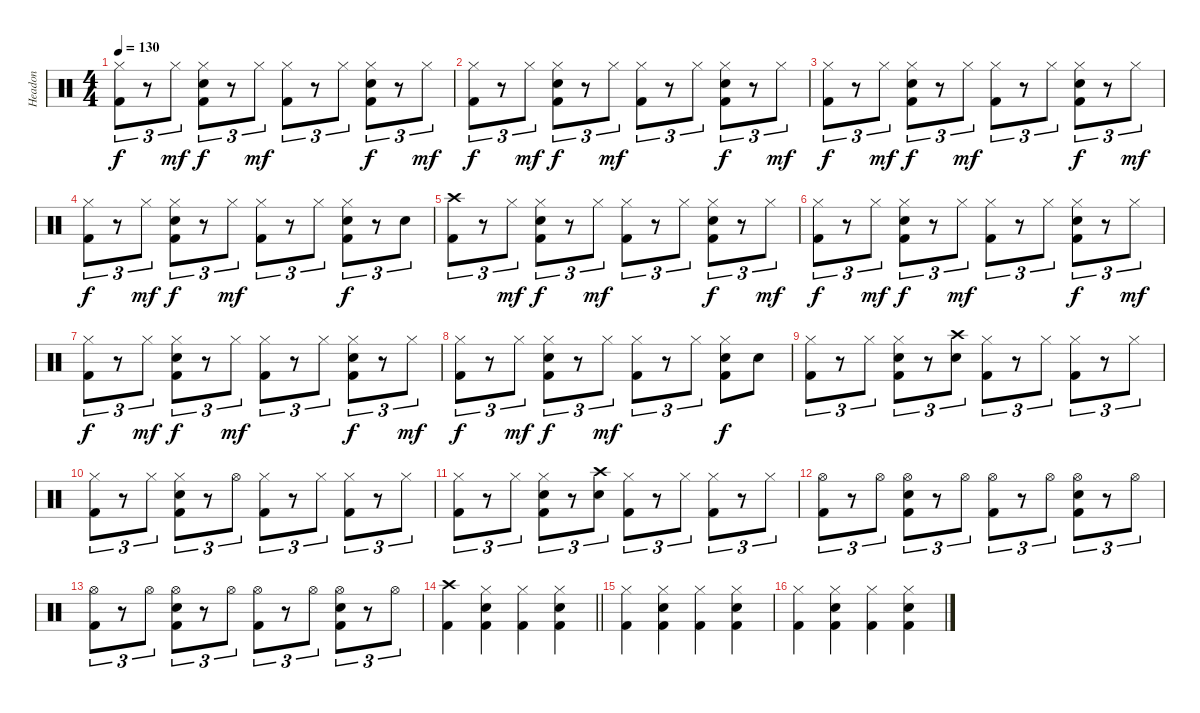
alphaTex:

\track ("Headon" "Headon") {instrument percussion}
\staff {score}
\articulation defaults
\ts (4 4)
\tempo 130
\clef neutral
\ks c
("Hi-Hat (closed)" "Kick (hit) 2").8{tu (3 2) dy f} r.8{tu (3 2)} "Hi-Hat (closed)".8{tu (3 2) dy mf} ("Hi-Hat (closed)" "Snare (hit) 2" "Kick (hit) 2").8{tu (3 2) dy f} r.8{tu (3 2)} "Hi-Hat (closed)".8{tu (3 2) dy mf} ("Hi-Hat (closed)" "Kick (hit) 2").8{tu (3 2)} r.8{tu (3 2)} "Hi-Hat (closed)".8{tu (3 2)} ("Hi-Hat (closed)" "Snare (hit) 2" "Kick (hit) 2").8{tu (3 2) dy f} r.8{tu (3 2)} "Hi-Hat (closed)".8{tu (3 2) dy mf} |
("Hi-Hat (closed)" "Kick (hit) 2").8{tu (3 2) dy f} r.8{tu (3 2)} "Hi-Hat (closed)".8{tu (3 2) dy mf} ("Hi-Hat (closed)" "Snare (hit) 2" "Kick (hit) 2").8{tu (3 2) dy f} r.8{tu (3 2)} "Hi-Hat (closed)".8{tu (3 2) dy mf} ("Hi-Hat (closed)" "Kick (hit) 2").8{tu (3 2)} r.8{tu (3 2)} "Hi-Hat (closed)".8{tu (3 2)} ("Hi-Hat (closed)" "Snare (hit) 2" "Kick (hit) 2").8{tu (3 2) dy f} r.8{tu (3 2)} "Hi-Hat (closed)".8{tu (3 2) dy mf} |
("Hi-Hat (closed)" "Kick (hit) 2").8{tu (3 2) dy f} r.8{tu (3 2)} "Hi-Hat (closed)".8{tu (3 2) dy mf} ("Hi-Hat (closed)" "Snare (hit) 2" "Kick (hit) 2").8{tu (3 2) dy f} r.8{tu (3 2)} "Hi-Hat (closed)".8{tu (3 2) dy mf} ("Hi-Hat (closed)" "Kick (hit) 2").8{tu (3 2)} r.8{tu (3 2)} "Hi-Hat (closed)".8{tu (3 2)} ("Hi-Hat (closed)" "Snare (hit) 2" "Kick (hit) 2").8{tu (3 2) dy f} r.8{tu (3 2)} "Hi-Hat (closed)".8{tu (3 2) dy mf} |
("Hi-Hat (closed)" "Kick (hit) 2").8{tu (3 2) dy f} r.8{tu (3 2)} "Hi-Hat (closed)".8{tu (3 2) dy mf} ("Hi-Hat (closed)" "Snare (hit) 2" "Kick (hit) 2").8{tu (3 2) dy f} r.8{tu (3 2)} "Hi-Hat (closed)".8{tu (3 2) dy mf} ("Hi-Hat (closed)" "Kick (hit) 2").8{tu (3 2)} r.8{tu (3 2)} "Hi-Hat (closed)".8{tu (3 2)} ("Hi-Hat (closed)" "Snare (hit) 2" "Kick (hit) 2").8{tu (3 2) dy f} r.8{tu (3 2)} "Snare (hit) 2".8{tu (3 2)} |
("Crash high (hit)" "Kick (hit) 2").8{tu (3 2)} r.8{tu (3 2)} "Hi-Hat (closed)".8{tu (3 2) dy mf} ("Hi-Hat (closed)" "Snare (hit) 2" "Kick (hit) 2").8{tu (3 2) dy f} r.8{tu (3 2)} "Hi-Hat (closed)".8{tu (3 2) dy mf} ("Hi-Hat (closed)" "Kick (hit) 2").8{tu (3 2)} r.8{tu (3 2)} "Hi-Hat (closed)".8{tu (3 2)} ("Hi-Hat (closed)" "Snare (hit) 2" "Kick (hit) 2").8{tu (3 2) dy f} r.8{tu (3 2)} "Hi-Hat (closed)".8{tu (3 2) dy mf} |
("Hi-Hat (closed)" "Kick (hit) 2").8{tu (3 2) dy f} r.8{tu (3 2)} "Hi-Hat (closed)".8{tu (3 2) dy mf} ("Hi-Hat (closed)" "Snare (hit) 2" "Kick (hit) 2").8{tu (3 2) dy f} r.8{tu (3 2)} "Hi-Hat (closed)".8{tu (3 2) dy mf} ("Hi-Hat (closed)" "Kick (hit) 2").8{tu (3 2)} r.8{tu (3 2)} "Hi-Hat (closed)".8{tu (3 2)} ("Hi-Hat (closed)" "Snare (hit) 2" "Kick (hit) 2").8{tu (3 2) dy f} r.8{tu (3 2)} "Hi-Hat (closed)".8{tu (3 2) dy mf} |
("Hi-Hat (closed)" "Kick (hit) 2").8{tu (3 2) dy f} r.8{tu (3 2)} "Hi-Hat (closed)".8{tu (3 2) dy mf} ("Hi-Hat (closed)" "Snare (hit) 2" "Kick (hit) 2").8{tu (3 2) dy f} r.8{tu (3 2)} "Hi-Hat (closed)".8{tu (3 2) dy mf} ("Hi-Hat (closed)" "Kick (hit) 2").8{tu (3 2)} r.8{tu (3 2)} "Hi-Hat (closed)".8{tu (3 2)} ("Hi-Hat (closed)" "Snare (hit) 2" "Kick (hit) 2").8{tu (3 2) dy f} r.8{tu (3 2)} "Hi-Hat (closed)".8{tu (3 2) dy mf} |
("Hi-Hat (closed)" "Kick (hit) 2").8{tu (3 2) dy f} r.8{tu (3 2)} "Hi-Hat (closed)".8{tu (3 2) dy mf} ("Hi-Hat (closed)" "Snare (hit) 2" "Kick (hit) 2").8{tu (3 2) dy f} r.8{tu (3 2)} "Hi-Hat (closed)".8{tu (3 2) dy mf} ("Hi-Hat (closed)" "Kick (hit) 2").8{tu (3 2)} r.8{tu (3 2)} "Hi-Hat (closed)".8{tu (3 2)} ("Hi-Hat (closed)" "Snare (hit) 2" "Kick (hit) 2").8{dy f} "Snare (hit) 2".8 |
("Hi-Hat (closed)" "Kick (hit) 2").8{tu (3 2)} r.8{tu (3 2)} "Hi-Hat (closed)".8{tu (3 2)} ("Hi-Hat (closed)" "Snare (hit) 2" "Kick (hit) 2").8{tu (3 2)} r.8{tu (3 2)} ("Crash high (hit)" "Snare (hit) 2").8{tu (3 2)} ("Hi-Hat (closed)" "Kick (hit) 2").8{tu (3 2)} r.8{tu (3 2)} "Hi-Hat (closed)".8{tu (3 2)} ("Hi-Hat (closed)" "Kick (hit) 2").8{tu (3 2)} r.8{tu (3 2)} "Hi-Hat (closed)".8{tu (3 2)} |
("Hi-Hat (closed)" "Kick (hit) 2").8{tu (3 2)} r.8{tu (3 2)} "Hi-Hat (closed)".8{tu (3 2)} ("Hi-Hat (closed)" "Snare (hit) 2" "Kick (hit) 2").8{tu (3 2)} r.8{tu (3 2)} "Hi-Hat (open)".8{tu (3 2)} ("Hi-Hat (closed)" "Kick (hit) 2").8{tu (3 2)} r.8{tu (3 2)} "Hi-Hat (closed)".8{tu (3 2)} ("Hi-Hat (closed)" "Kick (hit) 2").8{tu (3 2)} r.8{tu (3 2)} "Hi-Hat (closed)".8{tu (3 2)} |
("Hi-Hat (closed)" "Kick (hit) 2").8{tu (3 2)} r.8{tu (3 2)} "Hi-Hat (closed)".8{tu (3 2)} ("Hi-Hat (closed)" "Snare (hit) 2" "Kick (hit) 2").8{tu (3 2)} r.8{tu (3 2)} ("Crash high (hit)" "Snare (hit) 2").8{tu (3 2)} ("Hi-Hat (closed)" "Kick (hit) 2").8{tu (3 2)} r.8{tu (3 2)} "Hi-Hat (closed)".8{tu (3 2)} ("Hi-Hat (closed)" "Kick (hit) 2").8{tu (3 2)} r.8{tu (3 2)} "Hi-Hat (closed)".8{tu (3 2)} |
("Hi-Hat (open)" "Kick (hit) 2").8{tu (3 2)} r.8{tu (3 2)} "Hi-Hat (open)".8{tu (3 2)} ("Hi-Hat (open)" "Snare (hit) 2" "Kick (hit) 2").8{tu (3 2)} r.8{tu (3 2)} "Hi-Hat (open)".8{tu (3 2)} ("Hi-Hat (open)" "Kick (hit) 2").8{tu (3 2)} r.8{tu (3 2)} "Hi-Hat (open)".8{tu (3 2)} ("Hi-Hat (open)" "Snare (hit) 2" "Kick (hit) 2").8{tu (3 2)} r.8{tu (3 2)} "Hi-Hat (open)".8{tu (3 2)} |
("Hi-Hat (open)" "Kick (hit) 2").8{tu (3 2)} r.8{tu (3 2)} "Hi-Hat (open)".8{tu (3 2)} ("Hi-Hat (open)" "Snare (hit) 2" "Kick (hit) 2").8{tu (3 2)} r.8{tu (3 2)} "Hi-Hat (open)".8{tu (3 2)} ("Hi-Hat (open)" "Kick (hit) 2").8{tu (3 2)} r.8{tu (3 2)} "Hi-Hat (open)".8{tu (3 2)} ("Hi-Hat (open)" "Snare (hit) 2" "Kick (hit) 2").8{tu (3 2)} r.8{tu (3 2)} "Hi-Hat (open)".8{tu (3 2)} |
\barLineRight lightlight
("Crash high (hit)" "Kick (hit) 2").4 ("Hi-Hat (closed)" "Snare (hit) 2" "Kick (hit) 2").4 ("Hi-Hat (closed)" "Kick (hit) 2").4 ("Hi-Hat (closed)" "Snare (hit) 2" "Kick (hit) 2").4 |
("Hi-Hat (closed)" "Kick (hit) 2").4 ("Hi-Hat (closed)" "Snare (hit) 2" "Kick (hit) 2").4 ("Hi-Hat (closed)" "Kick (hit) 2").4 ("Hi-Hat (closed)" "Snare (hit) 2" "Kick (hit) 2").4 |
("Hi-Hat (closed)" "Kick (hit) 2").4 ("Hi-Hat (closed)" "Snare (hit) 2" "Kick (hit) 2").4 ("Hi-Hat (closed)" "Kick (hit) 2").4 ("Hi-Hat (closed)" "Snare (hit) 2" "Kick (hit) 2").4
